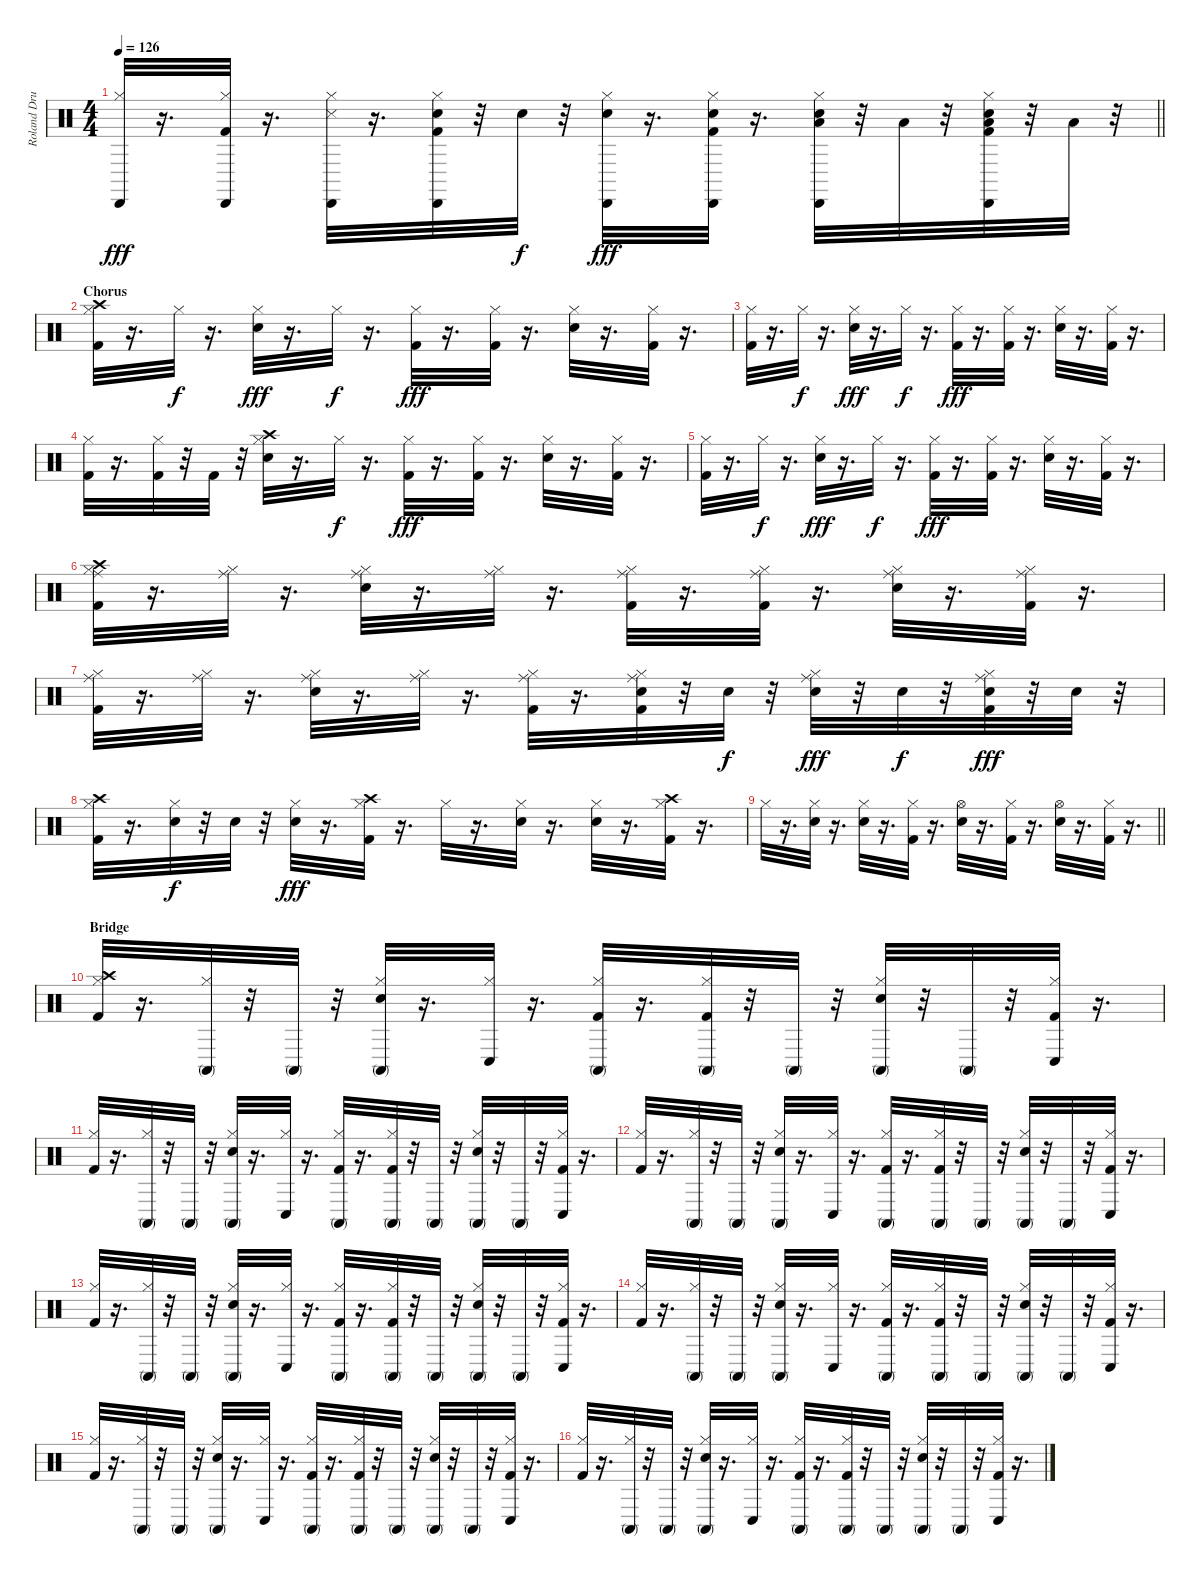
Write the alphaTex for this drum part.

\track ("Roland Drums" "Roland Dru") {instrument percussion}
\staff {score}
\articulation defaults
\ts (4 4)
\tempo 126
\clef neutral
\barLineRight lightlight
\ks c
("Hi-Hat (closed)" "Cabasa (hit)").32{dy fff} r.16{d} ("Kick (hit) 2" "Hi-Hat (closed)" "Cabasa (hit)").32 r.16{d} ("Hi-Hat (closed)" "Snare (side stick) 3" "Cabasa (hit)").32 r.16{d} ("Kick (hit) 2" "Snare (hit) 2" "Hi-Hat (closed)" "Cabasa (hit)").32 r.32 "Snare (hit) 2".32{dy f} r.32 ("Snare (hit) 2" "Hi-Hat (closed)" "Cabasa (hit)").32{dy fff} r.16{d} ("Kick (hit) 2" "Snare (hit) 2" "Hi-Hat (closed)" "Cabasa (hit)").32 r.16{d} ("Snare (hit) 2" "Hi-Hat (closed)" "Cabasa (hit)" "Low Tom (hit)").32 r.32 "Low Tom (hit)".32 r.32 ("Kick (hit) 2" "Snare (hit) 2" "Hi-Hat (closed)" "Cabasa (hit)" "Low Floor Tom (hit)").32 r.32 "Low Floor Tom (hit)".32 r.32 |
\section ("" "Chorus")
("Kick (hit) 2" "Hi-Hat (closed)" "Crash high (hit)").32 r.16{d} "Hi-Hat (closed)".32{dy f} r.16{d} ("Snare (hit) 2" "Hi-Hat (closed)").32{dy fff} r.16{d} "Hi-Hat (closed)".32{dy f} r.16{d} ("Kick (hit) 2" "Hi-Hat (closed)").32{dy fff} r.16{d} ("Kick (hit) 2" "Hi-Hat (closed)").32 r.16{d} ("Snare (hit) 2" "Hi-Hat (closed)").32 r.16{d} ("Kick (hit) 2" "Hi-Hat (closed)").32 r.16{d} |
("Kick (hit) 2" "Hi-Hat (closed)").32 r.16{d} "Hi-Hat (closed)".32{dy f} r.16{d} ("Snare (hit) 2" "Hi-Hat (closed)").32{dy fff} r.16{d} "Hi-Hat (closed)".32{dy f} r.16{d} ("Kick (hit) 2" "Hi-Hat (closed)").32{dy fff} r.16{d} ("Kick (hit) 2" "Hi-Hat (closed)").32 r.16{d} ("Snare (hit) 2" "Hi-Hat (closed)").32 r.16{d} ("Kick (hit) 2" "Hi-Hat (closed)").32 r.16{d} |
("Kick (hit) 2" "Hi-Hat (closed)").32 r.16{d} ("Kick (hit) 2" "Hi-Hat (closed)").32 r.32 "Kick (hit) 2".32 r.32 ("Snare (hit) 2" "Hi-Hat (closed)" "Crash high (hit)").32 r.16{d} "Hi-Hat (closed)".32{dy f} r.16{d} ("Kick (hit) 2" "Hi-Hat (closed)").32{dy fff} r.16{d} ("Kick (hit) 2" "Hi-Hat (closed)").32 r.16{d} ("Snare (hit) 2" "Hi-Hat (closed)").32 r.16{d} ("Kick (hit) 2" "Hi-Hat (closed)").32 r.16{d} |
("Kick (hit) 2" "Hi-Hat (closed)").32 r.16{d} "Hi-Hat (closed)".32{dy f} r.16{d} ("Snare (hit) 2" "Hi-Hat (closed)").32{dy fff} r.16{d} "Hi-Hat (closed)".32{dy f} r.16{d} ("Kick (hit) 2" "Hi-Hat (closed)").32{dy fff} r.16{d} ("Kick (hit) 2" "Hi-Hat (closed)").32 r.16{d} ("Snare (hit) 2" "Hi-Hat (closed)").32 r.16{d} ("Kick (hit) 2" "Hi-Hat (closed)").32 r.16{d} |
("Kick (hit) 2" "Hi-Hat (closed)" "Crash high (hit)" "Ride (middle)").32 r.16{d} ("Hi-Hat (closed)" "Ride (middle)").32 r.16{d} ("Snare (hit) 2" "Hi-Hat (closed)" "Ride (middle)").32 r.16{d} ("Hi-Hat (closed)" "Ride (middle)").32 r.16{d} ("Kick (hit) 2" "Hi-Hat (closed)" "Ride (middle)").32 r.16{d} ("Kick (hit) 2" "Hi-Hat (closed)" "Ride (middle)").32 r.16{d} ("Snare (hit) 2" "Hi-Hat (closed)" "Ride (middle)").32 r.16{d} ("Kick (hit) 2" "Hi-Hat (closed)" "Ride (middle)").32 r.16{d} |
("Kick (hit) 2" "Hi-Hat (closed)" "Ride (middle)").32 r.16{d} ("Hi-Hat (closed)" "Ride (middle)").32 r.16{d} ("Snare (hit) 2" "Hi-Hat (closed)" "Ride (middle)").32 r.16{d} ("Hi-Hat (closed)" "Ride (middle)").32 r.16{d} ("Kick (hit) 2" "Hi-Hat (closed)" "Ride (middle)").32 r.16{d} ("Kick (hit) 2" "Snare (hit) 2" "Hi-Hat (closed)" "Ride (middle)").32 r.32 "Snare (hit) 2".32{dy f} r.32 ("Snare (hit) 2" "Hi-Hat (closed)" "Ride (middle)").32{dy fff} r.32 "Snare (hit) 2".32{dy f} r.32 ("Kick (hit) 2" "Snare (hit) 2" "Hi-Hat (closed)" "Ride (middle)").32{dy fff} r.32 "Snare (hit) 2".32 r.32 |
("Kick (hit) 2" "Hi-Hat (closed)" "Crash high (hit)").32 r.16{d} ("Snare (hit) 2" "Hi-Hat (closed)").32{dy f} r.32 "Snare (hit) 2".32 r.32 ("Snare (hit) 2" "Hi-Hat (closed)").32{dy fff} r.16{d} ("Kick (hit) 2" "Hi-Hat (closed)" "Crash high (hit)").32 r.16{d} "Hi-Hat (closed)".32 r.16{d} ("Snare (hit) 2" "Hi-Hat (closed)").32 r.16{d} ("Snare (hit) 2" "Hi-Hat (closed)").32 r.16{d} ("Kick (hit) 2" "Hi-Hat (closed)" "Crash high (hit)").32 r.16{d} |
\barLineRight lightlight "Hi-Hat (closed)".32
r.16{d} ("Snare (hit) 2" "Hi-Hat (closed)").32 r.16{d} ("Snare (hit) 2" "Hi-Hat (closed)").32 r.16{d} ("Kick (hit) 2" "Hi-Hat (closed)").32 r.16{d} ("Snare (hit) 2" "Hi-Hat (open)").32 r.16{d} ("Kick (hit) 2" "Hi-Hat (closed)").32 r.16{d} ("Snare (hit) 2" "Hi-Hat (open)").32 r.16{d} ("Kick (hit) 2" "Hi-Hat (closed)").32 r.16{d} |
\section ("" "Bridge")
("Kick (hit) 2" "Hi-Hat (closed)" "Crash high (hit)").32 r.16{d} ("Hi-Hat (closed)" "Conga high (mute)").32 r.32 "Conga high (mute)".32 r.32 ("Snare (hit) 2" "Hi-Hat (closed)" "Conga high (mute)").32 r.16{d} ("Hi-Hat (closed)" "Conga low (hit)").32 r.16{d} ("Kick (hit) 2" "Hi-Hat (closed)" "Conga high (mute)").32 r.16{d} ("Kick (hit) 2" "Hi-Hat (closed)" "Conga high (mute)").32 r.32 "Conga high (mute)".32 r.32 ("Snare (hit) 2" "Hi-Hat (closed)" "Conga high (mute)").32 r.32 "Conga high (mute)".32 r.32 ("Kick (hit) 2" "Hi-Hat (closed)" "Conga low (hit)").32 r.16{d} |
("Kick (hit) 2" "Hi-Hat (closed)").32 r.16{d} ("Hi-Hat (closed)" "Conga high (mute)").32 r.32 "Conga high (mute)".32 r.32 ("Snare (hit) 2" "Hi-Hat (closed)" "Conga high (mute)").32 r.16{d} ("Hi-Hat (closed)" "Conga low (hit)").32 r.16{d} ("Kick (hit) 2" "Hi-Hat (closed)" "Conga high (mute)").32 r.16{d} ("Kick (hit) 2" "Hi-Hat (closed)" "Conga high (mute)").32 r.32 "Conga high (mute)".32 r.32 ("Snare (hit) 2" "Hi-Hat (closed)" "Conga high (mute)").32 r.32 "Conga high (mute)".32 r.32 ("Kick (hit) 2" "Hi-Hat (closed)" "Conga low (hit)").32 r.16{d} |
("Kick (hit) 2" "Hi-Hat (closed)").32 r.16{d} ("Hi-Hat (closed)" "Conga high (mute)").32 r.32 "Conga high (mute)".32 r.32 ("Snare (hit) 2" "Hi-Hat (closed)" "Conga high (mute)").32 r.16{d} ("Hi-Hat (closed)" "Conga low (hit)").32 r.16{d} ("Kick (hit) 2" "Hi-Hat (closed)" "Conga high (mute)").32 r.16{d} ("Kick (hit) 2" "Hi-Hat (closed)" "Conga high (mute)").32 r.32 "Conga high (mute)".32 r.32 ("Snare (hit) 2" "Hi-Hat (closed)" "Conga high (mute)").32 r.32 "Conga high (mute)".32 r.32 ("Kick (hit) 2" "Hi-Hat (closed)" "Conga low (hit)").32 r.16{d} |
("Kick (hit) 2" "Hi-Hat (closed)").32 r.16{d} ("Hi-Hat (closed)" "Conga high (mute)").32 r.32 "Conga high (mute)".32 r.32 ("Snare (hit) 2" "Hi-Hat (closed)" "Conga high (mute)").32 r.16{d} ("Hi-Hat (closed)" "Conga low (hit)").32 r.16{d} ("Kick (hit) 2" "Hi-Hat (closed)" "Conga high (mute)").32 r.16{d} ("Kick (hit) 2" "Hi-Hat (closed)" "Conga high (mute)").32 r.32 "Conga high (mute)".32 r.32 ("Snare (hit) 2" "Hi-Hat (closed)" "Conga high (mute)").32 r.32 "Conga high (mute)".32 r.32 ("Kick (hit) 2" "Hi-Hat (closed)" "Conga low (hit)").32 r.16{d} |
("Kick (hit) 2" "Hi-Hat (closed)").32 r.16{d} ("Hi-Hat (closed)" "Conga high (mute)").32 r.32 "Conga high (mute)".32 r.32 ("Snare (hit) 2" "Hi-Hat (closed)" "Conga high (mute)").32 r.16{d} ("Hi-Hat (closed)" "Conga low (hit)").32 r.16{d} ("Kick (hit) 2" "Hi-Hat (closed)" "Conga high (mute)").32 r.16{d} ("Kick (hit) 2" "Hi-Hat (closed)" "Conga high (mute)").32 r.32 "Conga high (mute)".32 r.32 ("Snare (hit) 2" "Hi-Hat (closed)" "Conga high (mute)").32 r.32 "Conga high (mute)".32 r.32 ("Kick (hit) 2" "Hi-Hat (closed)" "Conga low (hit)").32 r.16{d} |
("Kick (hit) 2" "Hi-Hat (closed)").32 r.16{d} ("Hi-Hat (closed)" "Conga high (mute)").32 r.32 "Conga high (mute)".32 r.32 ("Snare (hit) 2" "Hi-Hat (closed)" "Conga high (mute)").32 r.16{d} ("Hi-Hat (closed)" "Conga low (hit)").32 r.16{d} ("Kick (hit) 2" "Hi-Hat (closed)" "Conga high (mute)").32 r.16{d} ("Kick (hit) 2" "Hi-Hat (closed)" "Conga high (mute)").32 r.32 "Conga high (mute)".32 r.32 ("Snare (hit) 2" "Hi-Hat (closed)" "Conga high (mute)").32 r.32 "Conga high (mute)".32 r.32 ("Kick (hit) 2" "Hi-Hat (closed)" "Conga low (hit)").32 r.16{d} |
("Kick (hit) 2" "Hi-Hat (closed)").32 r.16{d} ("Hi-Hat (closed)" "Conga high (mute)").32 r.32 "Conga high (mute)".32 r.32 ("Snare (hit) 2" "Hi-Hat (closed)" "Conga high (mute)").32 r.16{d} ("Hi-Hat (closed)" "Conga low (hit)").32 r.16{d} ("Kick (hit) 2" "Hi-Hat (closed)" "Conga high (mute)").32 r.16{d} ("Kick (hit) 2" "Hi-Hat (closed)" "Conga high (mute)").32 r.32 "Conga high (mute)".32 r.32 ("Snare (hit) 2" "Hi-Hat (closed)" "Conga high (mute)").32 r.32 "Conga high (mute)".32 r.32 ("Kick (hit) 2" "Hi-Hat (closed)" "Conga low (hit)").32 r.16{d}
